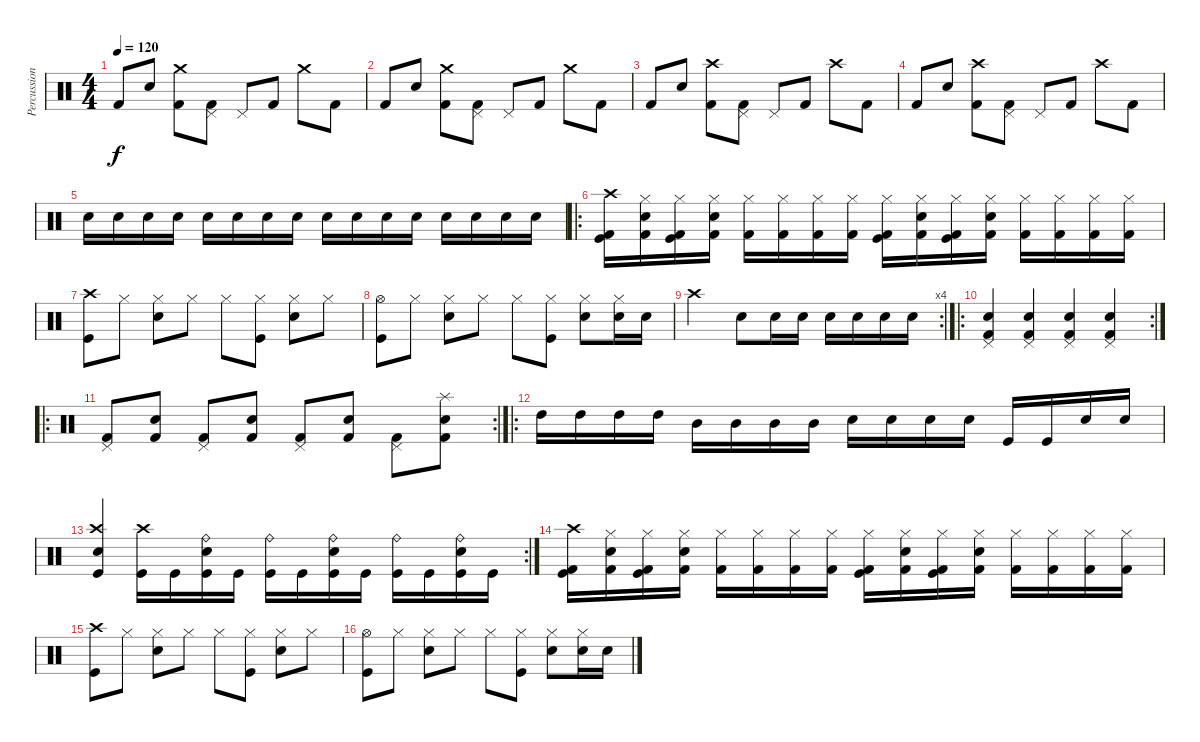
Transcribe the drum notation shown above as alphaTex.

\track ("Percussions Michael" "Percussion") {instrument percussion}
\staff {score}
\articulation defaults
\ts (4 4)
\tempo 120
\clef neutral
\ks c "Kick (hit) 2".8{dy f} "Electric Snare (hit)".8
("Crash medium (hit)" "Kick (hit) 2").8 ("Pedal Hi-Hat (hit)" "Kick (hit) 2").8 "Pedal Hi-Hat (hit)".8 "Kick (hit) 2".8 "Crash medium (hit)".8 "Kick (hit) 2".8 |
"Kick (hit) 2".8 "Electric Snare (hit)".8 ("Crash medium (hit)" "Kick (hit) 2").8 ("Pedal Hi-Hat (hit)" "Kick (hit) 2").8 "Pedal Hi-Hat (hit)".8 "Kick (hit) 2".8 "Crash medium (hit)".8 "Kick (hit) 2".8 |
"Kick (hit) 2".8 "Electric Snare (hit)".8 ("Crash high (hit)" "Kick (hit) 2").8 ("Pedal Hi-Hat (hit)" "Kick (hit) 2").8 "Pedal Hi-Hat (hit)".8 "Kick (hit) 2".8 "Crash high (hit)".8 "Kick (hit) 2".8 |
"Kick (hit) 2".8 "Electric Snare (hit)".8 ("Crash high (hit)" "Kick (hit) 2").8 ("Pedal Hi-Hat (hit)" "Kick (hit) 2").8 "Pedal Hi-Hat (hit)".8 "Kick (hit) 2".8 "Crash high (hit)".8 "Kick (hit) 2".8 |
"Electric Snare (hit)".16 "Electric Snare (hit)".16 "Electric Snare (hit)".16 "Electric Snare (hit)".16 "Electric Snare (hit)".16 "Electric Snare (hit)".16 "Electric Snare (hit)".16 "Electric Snare (hit)".16 "Electric Snare (hit)".16 "Electric Snare (hit)".16 "Electric Snare (hit)".16 "Electric Snare (hit)".16 "Electric Snare (hit)".16 "Electric Snare (hit)".16 "Electric Snare (hit)".16 "Electric Snare (hit)".16 |
\ro
("Crash high (hit)" "Kick (hit)" "Kick (hit) 2").16 ("Hi-Hat (closed)" "Electric Snare (hit)" "Kick (hit) 2").16 ("Hi-Hat (closed)" "Kick (hit)" "Kick (hit) 2").16 ("Hi-Hat (closed)" "Electric Snare (hit)" "Kick (hit) 2").16 ("Hi-Hat (closed)" "Kick (hit) 2").16 ("Hi-Hat (closed)" "Kick (hit) 2").16 ("Hi-Hat (closed)" "Kick (hit) 2").16 ("Hi-Hat (closed)" "Kick (hit) 2").16 ("Hi-Hat (closed)" "Kick (hit)" "Kick (hit) 2").16 ("Hi-Hat (closed)" "Electric Snare (hit)" "Kick (hit) 2").16 ("Hi-Hat (closed)" "Kick (hit)" "Kick (hit) 2").16 ("Hi-Hat (closed)" "Electric Snare (hit)" "Kick (hit) 2").16 ("Hi-Hat (closed)" "Kick (hit) 2").16 ("Hi-Hat (closed)" "Kick (hit) 2").16 ("Hi-Hat (closed)" "Kick (hit) 2").16 ("Hi-Hat (closed)" "Kick (hit) 2").16 |
("Crash high (hit)" "Kick (hit)").8 "Hi-Hat (closed)".8 ("Hi-Hat (closed)" "Electric Snare (hit)").8 "Hi-Hat (closed)".8 "Hi-Hat (closed)".8 ("Hi-Hat (closed)" "Kick (hit)").8 ("Hi-Hat (closed)" "Electric Snare (hit)").8 "Hi-Hat (closed)".8 |
("Hi-Hat (open)" "Kick (hit)").8 "Hi-Hat (closed)".8 ("Hi-Hat (closed)" "Electric Snare (hit)").8 "Hi-Hat (closed)".8 "Hi-Hat (closed)".8 ("Hi-Hat (closed)" "Kick (hit)").8 ("Hi-Hat (closed)" "Electric Snare (hit)").8 ("Hi-Hat (closed)" "Electric Snare (hit)").16 "Electric Snare (hit)".16 |
\rc 4 "Crash high (hit)".2 "Electric Snare (hit)".8 "Electric Snare (hit)".16 "Electric Snare (hit)".16 "Electric Snare (hit)".16 "Electric Snare (hit)".16 "Electric Snare (hit)".16 "Electric Snare (hit)".16
|
\ro
\rc 2
("Electric Snare (hit)" "Kick (hit) 2" "Pedal Hi-Hat (hit)").4 ("Electric Snare (hit)" "Kick (hit) 2" "Pedal Hi-Hat (hit)").4 ("Electric Snare (hit)" "Kick (hit) 2" "Pedal Hi-Hat (hit)").4 ("Electric Snare (hit)" "Kick (hit) 2" "Pedal Hi-Hat (hit)").4 |
\ro
\rc 2
("Pedal Hi-Hat (hit)" "Kick (hit) 2").8 ("Electric Snare (hit)" "Kick (hit) 2").8 ("Pedal Hi-Hat (hit)" "Kick (hit) 2").8 ("Electric Snare (hit)" "Kick (hit) 2").8 ("Pedal Hi-Hat (hit)" "Kick (hit) 2").8 ("Electric Snare (hit)" "Kick (hit) 2").8 ("Pedal Hi-Hat (hit)" "Kick (hit) 2").8 ("Splash (hit)" "Electric Snare (hit)" "Kick (hit) 2").8 |
\ro "High Tom (hit)".16 "High Tom (hit)".16 "High Tom (hit)".16 "High Tom (hit)".16 "Mid Tom (hit)".16 "Mid Tom (hit)".16 "Mid Tom (hit)".16 "Mid Tom (hit)".16 "Electric Snare (hit)".16 "Electric Snare (hit)".16 "Electric Snare (hit)".16 "Electric Snare (hit)".16 "Kick (hit)".16 "Kick (hit)".16 "Electric Snare (hit)".16 "Electric Snare (hit)".16
|
\rc 2
("Crash high (hit)" "Kick (hit)" "Electric Snare (hit)").4 ("Crash high (hit)" "Kick (hit)").16 "Kick (hit)".16 ("Ride (bell)" "Electric Snare (hit)" "Kick (hit)").16 "Kick (hit)".16 ("Ride (bell)" "Kick (hit)").16 "Kick (hit)".16 ("Ride (bell)" "Electric Snare (hit)" "Kick (hit)").16 "Kick (hit)".16 ("Ride (bell)" "Kick (hit)").16 "Kick (hit)".16 ("Ride (bell)" "Electric Snare (hit)" "Kick (hit)").16 "Kick (hit)".16 |
("Crash high (hit)" "Kick (hit)" "Kick (hit) 2").16 ("Hi-Hat (closed)" "Electric Snare (hit)" "Kick (hit) 2").16 ("Hi-Hat (closed)" "Kick (hit)" "Kick (hit) 2").16 ("Hi-Hat (closed)" "Electric Snare (hit)" "Kick (hit) 2").16 ("Hi-Hat (closed)" "Kick (hit) 2").16 ("Hi-Hat (closed)" "Kick (hit) 2").16 ("Hi-Hat (closed)" "Kick (hit) 2").16 ("Hi-Hat (closed)" "Kick (hit) 2").16 ("Hi-Hat (closed)" "Kick (hit)" "Kick (hit) 2").16 ("Hi-Hat (closed)" "Electric Snare (hit)" "Kick (hit) 2").16 ("Hi-Hat (closed)" "Kick (hit)" "Kick (hit) 2").16 ("Hi-Hat (closed)" "Electric Snare (hit)" "Kick (hit) 2").16 ("Hi-Hat (closed)" "Kick (hit) 2").16 ("Hi-Hat (closed)" "Kick (hit) 2").16 ("Hi-Hat (closed)" "Kick (hit) 2").16 ("Hi-Hat (closed)" "Kick (hit) 2").16 |
("Crash high (hit)" "Kick (hit)").8 "Hi-Hat (closed)".8 ("Hi-Hat (closed)" "Electric Snare (hit)").8 "Hi-Hat (closed)".8 "Hi-Hat (closed)".8 ("Hi-Hat (closed)" "Kick (hit)").8 ("Hi-Hat (closed)" "Electric Snare (hit)").8 "Hi-Hat (closed)".8 |
("Hi-Hat (open)" "Kick (hit)").8 "Hi-Hat (closed)".8 ("Hi-Hat (closed)" "Electric Snare (hit)").8 "Hi-Hat (closed)".8 "Hi-Hat (closed)".8 ("Hi-Hat (closed)" "Kick (hit)").8 ("Hi-Hat (closed)" "Electric Snare (hit)").8 ("Hi-Hat (closed)" "Electric Snare (hit)").16 "Electric Snare (hit)".16
